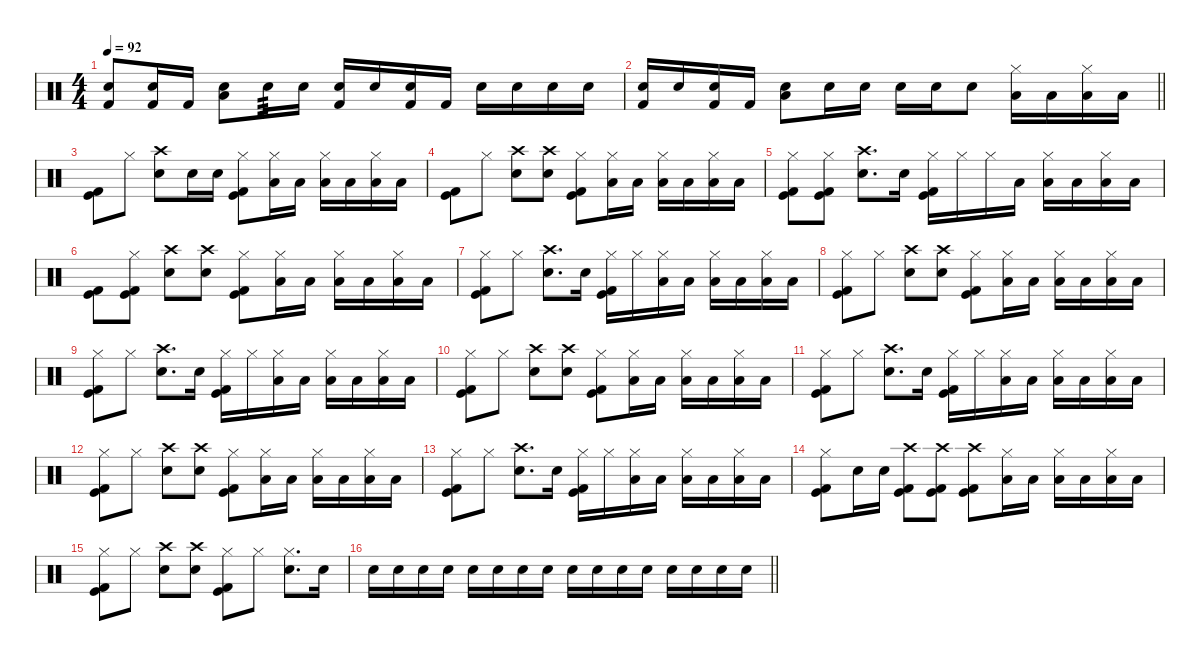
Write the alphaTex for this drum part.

\defaultSystemsLayout 4
\hideDynamics
\bracketExtendMode nobrackets
\singleTrackTrackNamePolicy hidden
\multiTrackTrackNamePolicy hidden
\otherSystemsTrackNameOrientation horizontal
\track ("Lars" "drm.") {instrument percussion}
\staff {score}
\articulation defaults
\ts (4 4)
\tempo 92
\clef neutral
\ks c
("Snare (hit) 2" "Kick (hit) 2").8{dy f beam Up} ("Snare (hit) 2" "Kick (hit) 2").16{beam Up} "Kick (hit) 2".16{beam Up} ("Snare (hit) 2" "Low Tom (hit)").8{beam Down} "Snare (hit) 2".16{tp 3 beam Down} "Snare (hit) 2".16{beam Down} ("Snare (hit) 2" "Kick (hit) 2").16{beam Up} "Snare (hit) 2".16{beam Up} ("Snare (hit) 2" "Kick (hit) 2").16{beam Up} "Kick (hit) 2".16{beam Up} "Snare (hit) 2".16{beam Down} "Snare (hit) 2".16{beam Down} "Snare (hit) 2".16{beam Down} "Snare (hit) 2".16{beam Down} |
\barLineRight lightlight
("Snare (hit) 2" "Kick (hit) 2").16{beam Up} "Snare (hit) 2".16{beam Up} ("Snare (hit) 2" "Kick (hit) 2").16{beam Up} "Kick (hit) 2".16{beam Up} ("Snare (hit) 2" "Low Tom (hit)").8{beam Down} "Snare (hit) 2".16{beam Down} "Snare (hit) 2".16{beam Down} "Snare (hit) 2".16{beam Down} "Snare (hit) 2".16{beam Down} "Snare (hit) 2".8{beam Down} ("Hi-Hat (closed)" "Low Floor Tom (hit)").16{beam Down} "Low Floor Tom (hit)".16{beam Down} ("Hi-Hat (closed)" "Low Floor Tom (hit)").16{beam Down} "Low Floor Tom (hit)".16{beam Down} |
\section ("" "")
("Kick (hit)" "Kick (hit) 2").8{beam Down} "Hi-Hat (closed)".8{beam Down} ("Crash high (hit)" "Snare (hit) 2").8{beam Down} "Snare (hit) 2".16{beam Down} "Snare (hit) 2".16{beam Down} ("Hi-Hat (closed)" "Kick (hit)" "Kick (hit) 2").8{beam Down} ("Hi-Hat (closed)" "Low Floor Tom (hit)").16{beam Down} "Low Floor Tom (hit)".16{beam Down} ("Hi-Hat (closed)" "Low Floor Tom (hit)").16{beam Down} "Low Floor Tom (hit)".16{beam Down} ("Hi-Hat (closed)" "Low Floor Tom (hit)").16{beam Down} "Low Floor Tom (hit)".16{beam Down} |
("Kick (hit)" "Kick (hit) 2").8{beam Down} "Hi-Hat (closed)".8{beam Down} ("Crash high (hit)" "Snare (hit) 2").8{beam Down} ("Crash high (hit)" "Snare (hit) 2").8{beam Down} ("Hi-Hat (closed)" "Kick (hit)" "Kick (hit) 2").8{beam Down} ("Hi-Hat (closed)" "Low Floor Tom (hit)").16{beam Down} "Low Floor Tom (hit)".16{beam Down} ("Hi-Hat (closed)" "Low Floor Tom (hit)").16{beam Down} "Low Floor Tom (hit)".16{beam Down} ("Hi-Hat (closed)" "Low Floor Tom (hit)").16{beam Down} "Low Floor Tom (hit)".16{beam Down} |
("Hi-Hat (closed)" "Kick (hit)" "Kick (hit) 2").8{beam Down} ("Hi-Hat (closed)" "Kick (hit)" "Kick (hit) 2").8{beam Down} ("Crash high (hit)" "Snare (hit) 2").8{d beam Down} "Snare (hit) 2".16{beam Down} ("Hi-Hat (closed)" "Kick (hit)" "Kick (hit) 2").16{beam Down} "Hi-Hat (closed)".16{beam Down} "Hi-Hat (closed)".16{beam Down} "Low Floor Tom (hit)".16{beam Down} ("Hi-Hat (closed)" "Low Floor Tom (hit)").16{beam Down} "Low Floor Tom (hit)".16{beam Down} ("Hi-Hat (closed)" "Low Floor Tom (hit)").16{beam Down} "Low Floor Tom (hit)".16{beam Down} |
("Kick (hit)" "Kick (hit) 2").8{beam Down} ("Hi-Hat (closed)" "Kick (hit)" "Kick (hit) 2").8{beam Down} ("Crash high (hit)" "Snare (hit) 2").8{beam Down} ("Crash high (hit)" "Snare (hit) 2").8{beam Down} ("Hi-Hat (closed)" "Kick (hit)" "Kick (hit) 2").8{beam Down} ("Hi-Hat (closed)" "Low Floor Tom (hit)").16{beam Down} "Low Floor Tom (hit)".16{beam Down} ("Hi-Hat (closed)" "Low Floor Tom (hit)").16{beam Down} "Low Floor Tom (hit)".16{beam Down} ("Hi-Hat (closed)" "Low Floor Tom (hit)").16{beam Down} "Low Floor Tom (hit)".16{beam Down} |
("Hi-Hat (closed)" "Kick (hit)" "Kick (hit) 2").8{beam Down} "Hi-Hat (closed)".8{beam Down} ("Crash high (hit)" "Snare (hit) 2").8{d beam Down} "Snare (hit) 2".16{beam Down} ("Hi-Hat (closed)" "Kick (hit)" "Kick (hit) 2").16{beam Down} "Hi-Hat (closed)".16{beam Down} ("Hi-Hat (closed)" "Low Floor Tom (hit)").16{beam Down} "Low Floor Tom (hit)".16{beam Down} ("Hi-Hat (closed)" "Low Floor Tom (hit)").16{beam Down} "Low Floor Tom (hit)".16{beam Down} ("Hi-Hat (closed)" "Low Floor Tom (hit)").16{beam Down} "Low Floor Tom (hit)".16{beam Down} |
("Hi-Hat (closed)" "Kick (hit)" "Kick (hit) 2").8{beam Down} "Hi-Hat (closed)".8{beam Down} ("Crash high (hit)" "Snare (hit) 2").8{beam Down} ("Crash high (hit)" "Snare (hit) 2").8{beam Down} ("Hi-Hat (closed)" "Kick (hit)" "Kick (hit) 2").8{beam Down} ("Hi-Hat (closed)" "Low Floor Tom (hit)").16{beam Down} "Low Floor Tom (hit)".16{beam Down} ("Hi-Hat (closed)" "Low Floor Tom (hit)").16{beam Down} "Low Floor Tom (hit)".16{beam Down} ("Hi-Hat (closed)" "Low Floor Tom (hit)").16{beam Down} "Low Floor Tom (hit)".16{beam Down} |
("Hi-Hat (closed)" "Kick (hit)" "Kick (hit) 2").8{beam Down} "Hi-Hat (closed)".8{beam Down} ("Crash high (hit)" "Snare (hit) 2").8{d beam Down} "Snare (hit) 2".16{beam Down} ("Hi-Hat (closed)" "Kick (hit)" "Kick (hit) 2").16{beam Down} "Hi-Hat (closed)".16{beam Down} ("Hi-Hat (closed)" "Low Floor Tom (hit)").16{beam Down} "Low Floor Tom (hit)".16{beam Down} ("Hi-Hat (closed)" "Low Floor Tom (hit)").16{beam Down} "Low Floor Tom (hit)".16{beam Down} ("Hi-Hat (closed)" "Low Floor Tom (hit)").16{beam Down} "Low Floor Tom (hit)".16{beam Down} |
("Hi-Hat (closed)" "Kick (hit)" "Kick (hit) 2").8{beam Down} "Hi-Hat (closed)".8{beam Down} ("Crash high (hit)" "Snare (hit) 2").8{beam Down} ("Crash high (hit)" "Snare (hit) 2").8{beam Down} ("Hi-Hat (closed)" "Kick (hit)" "Kick (hit) 2").8{beam Down} ("Hi-Hat (closed)" "Low Floor Tom (hit)").16{beam Down} "Low Floor Tom (hit)".16{beam Down} ("Hi-Hat (closed)" "Low Floor Tom (hit)").16{beam Down} "Low Floor Tom (hit)".16{beam Down} ("Hi-Hat (closed)" "Low Floor Tom (hit)").16{beam Down} "Low Floor Tom (hit)".16{beam Down} |
("Hi-Hat (closed)" "Kick (hit)" "Kick (hit) 2").8{beam Down} "Hi-Hat (closed)".8{beam Down} ("Crash high (hit)" "Snare (hit) 2").8{d beam Down} "Snare (hit) 2".16{beam Down} ("Hi-Hat (closed)" "Kick (hit)" "Kick (hit) 2").16{beam Down} "Hi-Hat (closed)".16{beam Down} ("Hi-Hat (closed)" "Low Floor Tom (hit)").16{beam Down} "Low Floor Tom (hit)".16{beam Down} ("Hi-Hat (closed)" "Low Floor Tom (hit)").16{beam Down} "Low Floor Tom (hit)".16{beam Down} ("Hi-Hat (closed)" "Low Floor Tom (hit)").16{beam Down} "Low Floor Tom (hit)".16{beam Down} |
("Hi-Hat (closed)" "Kick (hit)" "Kick (hit) 2").8{beam Down} "Hi-Hat (closed)".8{beam Down} ("Crash high (hit)" "Snare (hit) 2").8{beam Down} ("Crash high (hit)" "Snare (hit) 2").8{beam Down} ("Hi-Hat (closed)" "Kick (hit)" "Kick (hit) 2").8{beam Down} ("Hi-Hat (closed)" "Low Floor Tom (hit)").16{beam Down} "Low Floor Tom (hit)".16{beam Down} ("Hi-Hat (closed)" "Low Floor Tom (hit)").16{beam Down} "Low Floor Tom (hit)".16{beam Down} ("Hi-Hat (closed)" "Low Floor Tom (hit)").16{beam Down} "Low Floor Tom (hit)".16{beam Down} |
("Hi-Hat (closed)" "Kick (hit)" "Kick (hit) 2").8{beam Down} "Hi-Hat (closed)".8{beam Down} ("Crash high (hit)" "Snare (hit) 2").8{d beam Down} "Snare (hit) 2".16{beam Down} ("Hi-Hat (closed)" "Kick (hit)" "Kick (hit) 2").16{beam Down} "Hi-Hat (closed)".16{beam Down} ("Hi-Hat (closed)" "Low Floor Tom (hit)").16{beam Down} "Low Floor Tom (hit)".16{beam Down} ("Hi-Hat (closed)" "Low Floor Tom (hit)").16{beam Down} "Low Floor Tom (hit)".16{beam Down} ("Hi-Hat (closed)" "Low Floor Tom (hit)").16{beam Down} "Low Floor Tom (hit)".16{beam Down} |
("Hi-Hat (closed)" "Kick (hit)" "Kick (hit) 2").8{beam Down} "Snare (hit) 2".16{beam Down} "Snare (hit) 2".16{beam Down} ("Crash high (hit)" "Kick (hit)" "Kick (hit) 2").8{beam Down} ("Crash high (hit)" "Kick (hit)" "Kick (hit) 2").8{beam Down} ("Crash high (hit)" "Kick (hit)" "Kick (hit) 2").8{beam Down} ("Hi-Hat (closed)" "Low Floor Tom (hit)").16{beam Down} "Low Floor Tom (hit)".16{beam Down} ("Hi-Hat (closed)" "Low Floor Tom (hit)").16{beam Down} "Low Floor Tom (hit)".16{beam Down} ("Hi-Hat (closed)" "Low Floor Tom (hit)").16{beam Down} "Low Floor Tom (hit)".16{beam Down} |
("Hi-Hat (closed)" "Kick (hit)" "Kick (hit) 2").8{beam Down} "Hi-Hat (closed)".8{beam Down} ("Crash high (hit)" "Snare (hit) 2").8{beam Down} ("Crash high (hit)" "Snare (hit) 2").8{beam Down} ("Hi-Hat (closed)" "Kick (hit)" "Kick (hit) 2").8{beam Down} "Hi-Hat (closed)".8{beam Down} ("Hi-Hat (closed)" "Snare (hit) 2").8{d beam Down} "Snare (hit) 2".16{beam Down} |
\barLineRight lightlight "Snare (hit) 2".16{beam Down} "Snare (hit) 2".16{beam Down} "Snare (hit) 2".16{beam Down} "Snare (hit) 2".16{beam Down} "Snare (hit) 2".16{beam Down} "Snare (hit) 2".16{beam Down} "Snare (hit) 2".16{beam Down} "Snare (hit) 2".16{beam Down} "Snare (hit) 2".16{beam Down} "Snare (hit) 2".16{beam Down} "Snare (hit) 2".16{beam Down} "Snare (hit) 2".16{beam Down} "Snare (hit) 2".16{beam Down} "Snare (hit) 2".16{beam Down} "Snare (hit) 2".16{beam Down} "Snare (hit) 2".16{beam Down}
